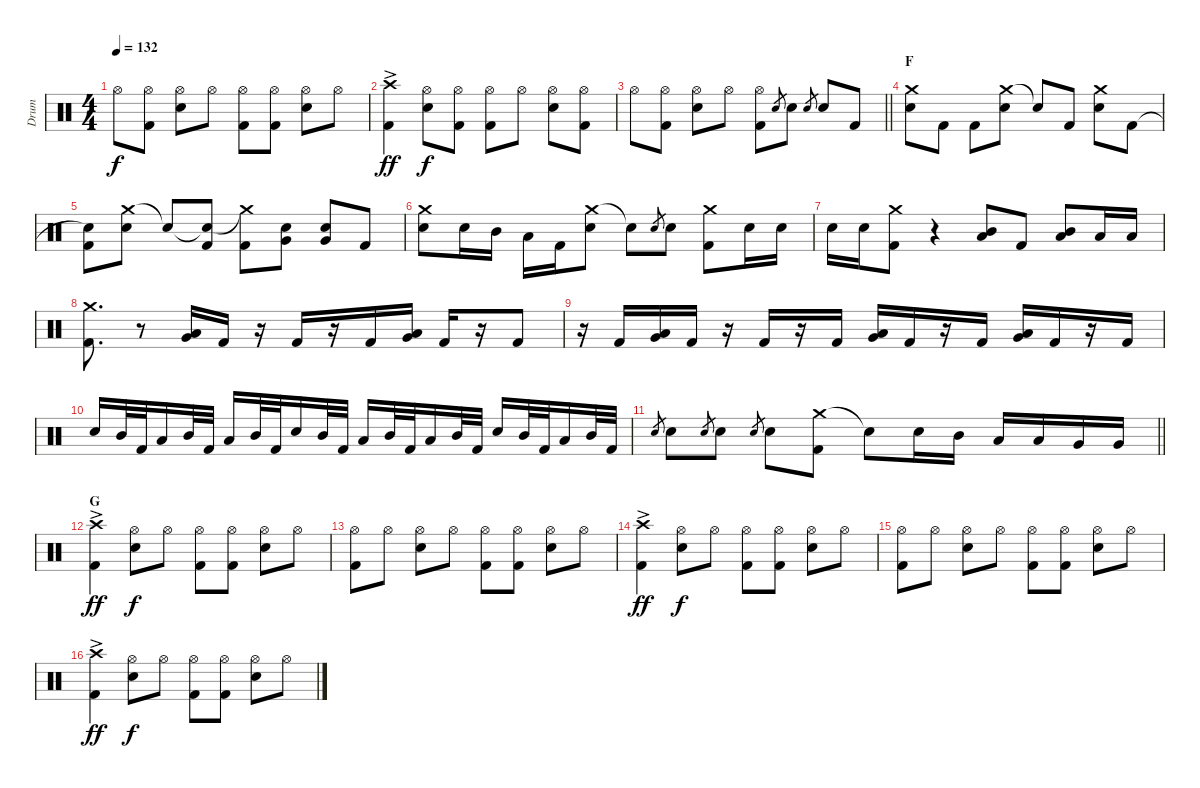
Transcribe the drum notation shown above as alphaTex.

\track ("Drum" "Drum") {instrument percussion}
\staff {score}
\articulation defaults
\ts (4 4)
\tempo 132
\clef neutral
\ks c "Hi-Hat (open)".8{dy f}
("Hi-Hat (open)" "Kick (hit) 2").8 ("Hi-Hat (open)" "Electric Snare (hit)").8 "Hi-Hat (open)".8 ("Hi-Hat (open)" "Kick (hit) 2").8 ("Hi-Hat (open)" "Kick (hit) 2").8 ("Hi-Hat (open)" "Electric Snare (hit)").8 "Hi-Hat (open)".8 |
("Crash high (hit)"{ac} "Kick (hit) 2").4{dy ff} ("Hi-Hat (open)" "Electric Snare (hit)").8{dy f} ("Hi-Hat (open)" "Kick (hit) 2").8 ("Hi-Hat (open)" "Kick (hit) 2").8 "Hi-Hat (open)".8 ("Hi-Hat (open)" "Electric Snare (hit)").8 ("Hi-Hat (open)" "Kick (hit) 2").8 |
\barLineRight lightlight "Hi-Hat (open)".8
("Hi-Hat (open)" "Kick (hit) 2").8 ("Hi-Hat (open)" "Electric Snare (hit)").8 "Hi-Hat (open)".8 ("Hi-Hat (open)" "Kick (hit) 2").8 "Electric Snare (hit)".8{gr} "Electric Snare (hit)".8 "Electric Snare (hit)".8{gr} "Electric Snare (hit)".8 "Kick (hit) 2".8 |
\section ("" "F")
("Crash medium (hit)" "Electric Snare (hit)").8 "Kick (hit) 2".8 "Kick (hit) 2".8 ("Crash medium (hit)" "Electric Snare (hit)").8 "Snare (hit)"{t}.8 "Kick (hit) 2".8 ("Crash medium (hit)" "Electric Snare (hit)").8 "Kick (hit) 2".8 |
("Snare (hit)"{t} "Kick (hit) 2").8 ("Crash medium (hit)" "Electric Snare (hit)").8 "Snare (hit)"{t}.8 ("Snare (hit)"{t} "Kick (hit) 2").8 ("Crash medium (hit)"{t} "Kick (hit) 2").8 ("Electric Snare (hit)" "Very Low Tom (hit)").8 ("Electric Snare (hit)" "Very Low Tom (hit)").8 "Kick (hit) 2".8 |
("Crash medium (hit)" "Electric Snare (hit)").8 "Electric Snare (hit)".16 "Mid Tom (hit)".16 "Low Tom (hit)".16 "Kick (hit) 2".16 ("Crash medium (hit)" "Electric Snare (hit)").8 "Snare (hit)"{t}.8 "Electric Snare (hit)".8{gr} "Electric Snare (hit)".8 ("Crash medium (hit)" "Kick (hit) 2").8 "Electric Snare (hit)".16 "Electric Snare (hit)".16 |
"Electric Snare (hit)".16 "Electric Snare (hit)".16 ("Crash medium (hit)" "Kick (hit) 2").8 r.4 ("Mid Tom (hit)" "Low Tom (hit)").8 "Kick (hit) 2".8 ("Mid Tom (hit)" "Low Tom (hit)").8 "Low Tom (hit)".16 "Low Tom (hit)".16 |
("Crash medium (hit)" "Kick (hit) 2").8{d} r.8 ("Low Tom (hit)" "Very Low Tom (hit)").16 "Kick (hit) 2".16 r.16 "Kick (hit) 2".16 r.16 "Kick (hit) 2".16 ("Low Tom (hit)" "Very Low Tom (hit)").16 "Kick (hit) 2".16 r.16 "Kick (hit) 2".8 |
r.16 "Kick (hit) 2".16 ("Low Tom (hit)" "Very Low Tom (hit)").16 "Kick (hit) 2".16 r.16 "Kick (hit) 2".16 r.16 "Kick (hit) 2".16 ("Low Tom (hit)" "Very Low Tom (hit)").16 "Kick (hit) 2".16 r.16 "Kick (hit) 2".16 ("Low Tom (hit)" "Very Low Tom (hit)").16 "Kick (hit) 2".16 r.16 "Kick (hit) 2".16 |
"Electric Snare (hit)".16 "Mid Tom (hit)".32 "Kick (hit) 2".32 "Low Tom (hit)".16 "Mid Tom (hit)".32 "Kick (hit) 2".32 "Low Tom (hit)".16 "Mid Tom (hit)".32 "Kick (hit) 2".32 "Electric Snare (hit)".16 "Mid Tom (hit)".32 "Kick (hit) 2".32 "Low Tom (hit)".16 "Mid Tom (hit)".32 "Kick (hit) 2".32 "Low Tom (hit)".16 "Mid Tom (hit)".32 "Kick (hit) 2".32 "Electric Snare (hit)".16 "Mid Tom (hit)".32 "Kick (hit) 2".32 "Low Tom (hit)".16 "Mid Tom (hit)".32 "Kick (hit) 2".32 |
\barLineRight lightlight "Electric Snare (hit)".8{gr} "Electric Snare (hit)".8 "Electric Snare (hit)".8{gr} "Electric Snare (hit)".8 "Electric Snare (hit)".8{gr} "Electric Snare (hit)".8
("Crash medium (hit)" "Kick (hit) 2").8 "Snare (hit)"{t}.8 "Electric Snare (hit)".16 "Mid Tom (hit)".16 "Low Tom (hit)".16 "Low Tom (hit)".16 "Very Low Tom (hit)".16 "Very Low Tom (hit)".16 |
\section ("" "G")
("Crash high (hit)"{ac} "Kick (hit) 2").4{dy ff} ("Hi-Hat (open)" "Electric Snare (hit)").8{dy f} "Hi-Hat (open)".8 ("Hi-Hat (open)" "Kick (hit) 2").8 ("Hi-Hat (open)" "Kick (hit) 2").8 ("Hi-Hat (open)" "Electric Snare (hit)").8 "Hi-Hat (open)".8 |
("Hi-Hat (open)" "Kick (hit) 2").8 "Hi-Hat (open)".8 ("Hi-Hat (open)" "Electric Snare (hit)").8 "Hi-Hat (open)".8 ("Hi-Hat (open)" "Kick (hit) 2").8 ("Hi-Hat (open)" "Kick (hit) 2").8 ("Hi-Hat (open)" "Electric Snare (hit)").8 "Hi-Hat (open)".8 |
("Crash high (hit)"{ac} "Kick (hit) 2").4{dy ff} ("Hi-Hat (open)" "Electric Snare (hit)").8{dy f} "Hi-Hat (open)".8 ("Hi-Hat (open)" "Kick (hit) 2").8 ("Hi-Hat (open)" "Kick (hit) 2").8 ("Hi-Hat (open)" "Electric Snare (hit)").8 "Hi-Hat (open)".8 |
("Hi-Hat (open)" "Kick (hit) 2").8 "Hi-Hat (open)".8 ("Hi-Hat (open)" "Electric Snare (hit)").8 "Hi-Hat (open)".8 ("Hi-Hat (open)" "Kick (hit) 2").8 ("Hi-Hat (open)" "Kick (hit) 2").8 ("Hi-Hat (open)" "Electric Snare (hit)").8 "Hi-Hat (open)".8 |
("Crash high (hit)"{ac} "Kick (hit) 2").4{dy ff} ("Hi-Hat (open)" "Electric Snare (hit)").8{dy f} "Hi-Hat (open)".8 ("Hi-Hat (open)" "Kick (hit) 2").8 ("Hi-Hat (open)" "Kick (hit) 2").8 ("Hi-Hat (open)" "Electric Snare (hit)").8 "Hi-Hat (open)".8
